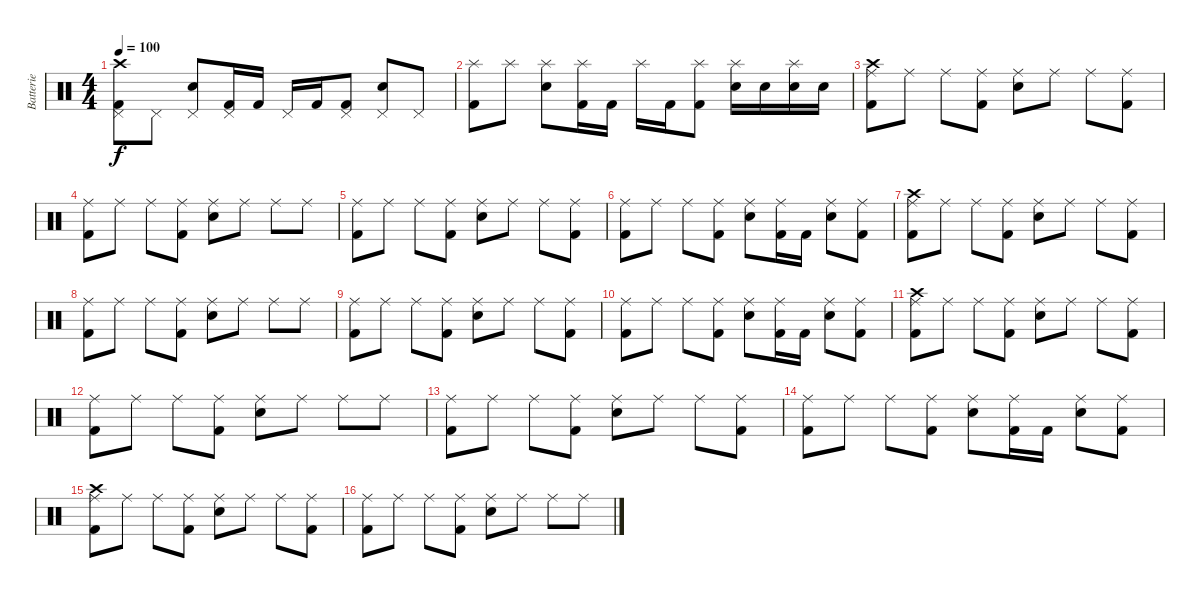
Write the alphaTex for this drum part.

\track ("Batterie" "Batterie") {instrument percussion}
\staff {score}
\articulation defaults
\ts (4 4)
\tempo 100
\clef neutral
\ks c
("Crash high (hit)" "Pedal Hi-Hat (hit)" "Kick (hit) 2").8{dy f} "Pedal Hi-Hat (hit)".8 ("Pedal Hi-Hat (hit)" "Electric Snare (hit)").8 ("Pedal Hi-Hat (hit)" "Kick (hit) 2").16 "Kick (hit) 2".16 "Pedal Hi-Hat (hit)".16 "Kick (hit) 2".16 ("Pedal Hi-Hat (hit)" "Kick (hit) 2").8 ("Pedal Hi-Hat (hit)" "Electric Snare (hit)").8 "Pedal Hi-Hat (hit)".8 |
("Splash (hit)" "Kick (hit) 2").8 "Splash (hit)".8 ("Splash (hit)" "Electric Snare (hit)").8 ("Splash (hit)" "Kick (hit) 2").16 "Kick (hit) 2".16 "Splash (hit)".16 "Kick (hit) 2".16 ("Splash (hit)" "Kick (hit) 2").8 ("Splash (hit)" "Electric Snare (hit)").16 "Electric Snare (hit)".16 ("Splash (hit)" "Electric Snare (hit)").16 "Electric Snare (hit)".16 |
("Crash high (hit)" "Ride (middle)" "Kick (hit) 2").8 "Ride (middle)".8 "Ride (middle)".8 ("Ride (middle)" "Kick (hit) 2").8 ("Ride (middle)" "Electric Snare (hit)").8 "Ride (middle)".8 "Ride (middle)".8 ("Ride (middle)" "Kick (hit) 2").8 |
("Ride (middle)" "Kick (hit) 2").8 "Ride (middle)".8 "Ride (middle)".8 ("Ride (middle)" "Kick (hit) 2").8 ("Ride (middle)" "Electric Snare (hit)").8 "Ride (middle)".8 "Ride (middle)".8 "Ride (middle)".8 |
("Ride (middle)" "Kick (hit) 2").8 "Ride (middle)".8 "Ride (middle)".8 ("Ride (middle)" "Kick (hit) 2").8 ("Ride (middle)" "Electric Snare (hit)").8 "Ride (middle)".8 "Ride (middle)".8 ("Ride (middle)" "Kick (hit) 2").8 |
("Ride (middle)" "Kick (hit) 2").8 "Ride (middle)".8 "Ride (middle)".8 ("Ride (middle)" "Kick (hit) 2").8 ("Ride (middle)" "Electric Snare (hit)").8 ("Ride (middle)" "Kick (hit) 2").16 "Kick (hit) 2".16 ("Ride (middle)" "Electric Snare (hit)").8 ("Ride (middle)" "Kick (hit) 2").8 |
("Crash high (hit)" "Ride (middle)" "Kick (hit) 2").8 "Ride (middle)".8 "Ride (middle)".8 ("Ride (middle)" "Kick (hit) 2").8 ("Ride (middle)" "Electric Snare (hit)").8 "Ride (middle)".8 "Ride (middle)".8 ("Ride (middle)" "Kick (hit) 2").8 |
("Ride (middle)" "Kick (hit) 2").8 "Ride (middle)".8 "Ride (middle)".8 ("Ride (middle)" "Kick (hit) 2").8 ("Ride (middle)" "Electric Snare (hit)").8 "Ride (middle)".8 "Ride (middle)".8 "Ride (middle)".8 |
("Ride (middle)" "Kick (hit) 2").8 "Ride (middle)".8 "Ride (middle)".8 ("Ride (middle)" "Kick (hit) 2").8 ("Ride (middle)" "Electric Snare (hit)").8 "Ride (middle)".8 "Ride (middle)".8 ("Ride (middle)" "Kick (hit) 2").8 |
("Ride (middle)" "Kick (hit) 2").8 "Ride (middle)".8 "Ride (middle)".8 ("Ride (middle)" "Kick (hit) 2").8 ("Ride (middle)" "Electric Snare (hit)").8 ("Ride (middle)" "Kick (hit) 2").16 "Kick (hit) 2".16 ("Ride (middle)" "Electric Snare (hit)").8 ("Ride (middle)" "Kick (hit) 2").8 |
("Crash high (hit)" "Ride (middle)" "Kick (hit) 2").8 "Ride (middle)".8 "Ride (middle)".8 ("Ride (middle)" "Kick (hit) 2").8 ("Ride (middle)" "Electric Snare (hit)").8 "Ride (middle)".8 "Ride (middle)".8 ("Ride (middle)" "Kick (hit) 2").8 |
("Ride (middle)" "Kick (hit) 2").8 "Ride (middle)".8 "Ride (middle)".8 ("Ride (middle)" "Kick (hit) 2").8 ("Ride (middle)" "Electric Snare (hit)").8 "Ride (middle)".8 "Ride (middle)".8 "Ride (middle)".8 |
("Ride (middle)" "Kick (hit) 2").8 "Ride (middle)".8 "Ride (middle)".8 ("Ride (middle)" "Kick (hit) 2").8 ("Ride (middle)" "Electric Snare (hit)").8 "Ride (middle)".8 "Ride (middle)".8 ("Ride (middle)" "Kick (hit) 2").8 |
("Ride (middle)" "Kick (hit) 2").8 "Ride (middle)".8 "Ride (middle)".8 ("Ride (middle)" "Kick (hit) 2").8 ("Ride (middle)" "Electric Snare (hit)").8 ("Ride (middle)" "Kick (hit) 2").16 "Kick (hit) 2".16 ("Ride (middle)" "Electric Snare (hit)").8 ("Ride (middle)" "Kick (hit) 2").8 |
("Crash high (hit)" "Ride (middle)" "Kick (hit) 2").8 "Ride (middle)".8 "Ride (middle)".8 ("Ride (middle)" "Kick (hit) 2").8 ("Ride (middle)" "Electric Snare (hit)").8 "Ride (middle)".8 "Ride (middle)".8 ("Ride (middle)" "Kick (hit) 2").8 |
("Ride (middle)" "Kick (hit) 2").8 "Ride (middle)".8 "Ride (middle)".8 ("Ride (middle)" "Kick (hit) 2").8 ("Ride (middle)" "Electric Snare (hit)").8 "Ride (middle)".8 "Ride (middle)".8 "Ride (middle)".8
